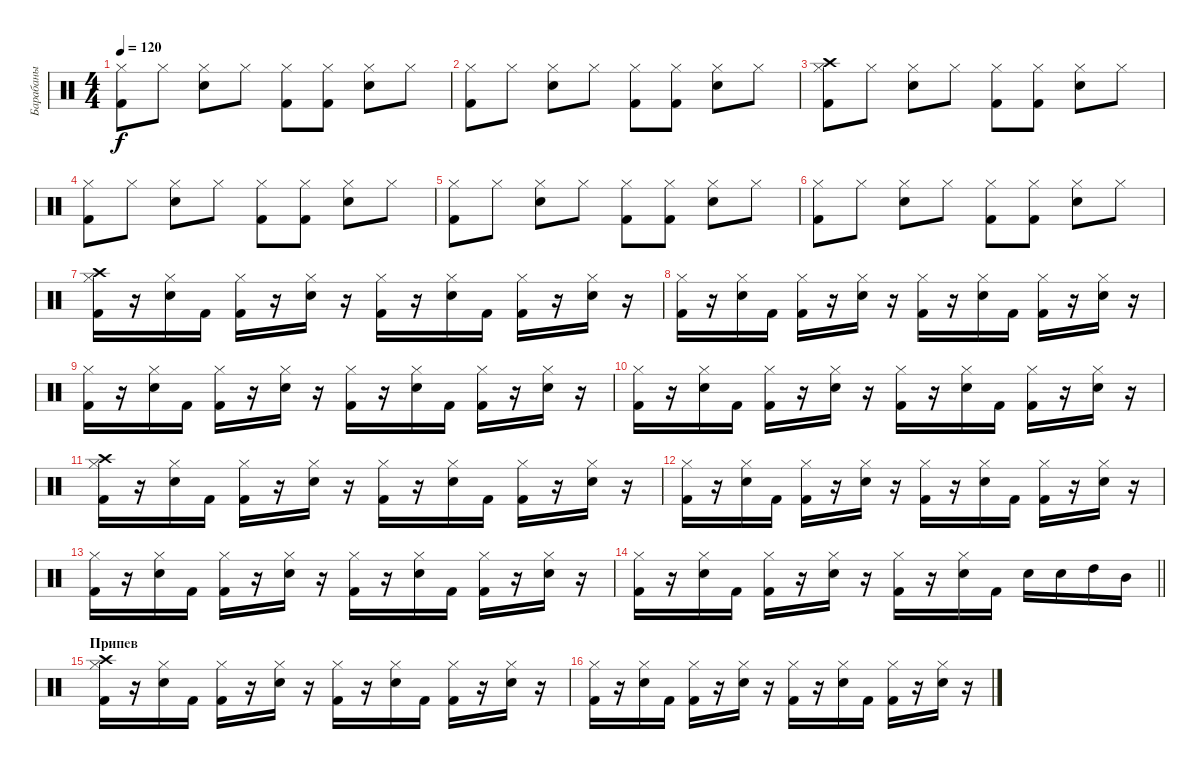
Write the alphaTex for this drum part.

\track ("Барабаны" "Барабаны") {instrument percussion}
\staff {score}
\articulation defaults
\ts (4 4)
\tempo 120
\clef neutral
\ks c
("Hi-Hat (closed)" "Kick (hit) 2").8{dy f} "Hi-Hat (closed)".8 ("Hi-Hat (closed)" "Electric Snare (hit)").8 "Hi-Hat (closed)".8 ("Hi-Hat (closed)" "Kick (hit) 2").8 ("Hi-Hat (closed)" "Kick (hit) 2").8 ("Hi-Hat (closed)" "Electric Snare (hit)").8 "Hi-Hat (closed)".8 |
("Hi-Hat (closed)" "Kick (hit) 2").8 "Hi-Hat (closed)".8 ("Hi-Hat (closed)" "Electric Snare (hit)").8 "Hi-Hat (closed)".8 ("Hi-Hat (closed)" "Kick (hit) 2").8 ("Hi-Hat (closed)" "Kick (hit) 2").8 ("Hi-Hat (closed)" "Electric Snare (hit)").8 "Hi-Hat (closed)".8 |
("Hi-Hat (closed)" "Kick (hit) 2" "Crash high (hit)").8 "Hi-Hat (closed)".8 ("Hi-Hat (closed)" "Electric Snare (hit)").8 "Hi-Hat (closed)".8 ("Hi-Hat (closed)" "Kick (hit) 2").8 ("Hi-Hat (closed)" "Kick (hit) 2").8 ("Hi-Hat (closed)" "Electric Snare (hit)").8 "Hi-Hat (closed)".8 |
("Hi-Hat (closed)" "Kick (hit) 2").8 "Hi-Hat (closed)".8 ("Hi-Hat (closed)" "Electric Snare (hit)").8 "Hi-Hat (closed)".8 ("Hi-Hat (closed)" "Kick (hit) 2").8 ("Hi-Hat (closed)" "Kick (hit) 2").8 ("Hi-Hat (closed)" "Electric Snare (hit)").8 "Hi-Hat (closed)".8 |
("Hi-Hat (closed)" "Kick (hit) 2").8 "Hi-Hat (closed)".8 ("Hi-Hat (closed)" "Electric Snare (hit)").8 "Hi-Hat (closed)".8 ("Hi-Hat (closed)" "Kick (hit) 2").8 ("Hi-Hat (closed)" "Kick (hit) 2").8 ("Hi-Hat (closed)" "Electric Snare (hit)").8 "Hi-Hat (closed)".8 |
("Hi-Hat (closed)" "Kick (hit) 2").8 "Hi-Hat (closed)".8 ("Hi-Hat (closed)" "Electric Snare (hit)").8 "Hi-Hat (closed)".8 ("Hi-Hat (closed)" "Kick (hit) 2").8 ("Hi-Hat (closed)" "Kick (hit) 2").8 ("Hi-Hat (closed)" "Electric Snare (hit)").8 "Hi-Hat (closed)".8 |
("Hi-Hat (closed)" "Kick (hit) 2" "Crash high (hit)").16 r.16 ("Hi-Hat (closed)" "Electric Snare (hit)").16 "Kick (hit) 2".16 ("Hi-Hat (closed)" "Kick (hit) 2").16 r.16 ("Hi-Hat (closed)" "Electric Snare (hit)").16 r.16 ("Hi-Hat (closed)" "Kick (hit) 2").16 r.16 ("Hi-Hat (closed)" "Electric Snare (hit)").16 "Kick (hit) 2".16 ("Hi-Hat (closed)" "Kick (hit) 2").16 r.16 ("Hi-Hat (closed)" "Electric Snare (hit)").16 r.16 |
("Hi-Hat (closed)" "Kick (hit) 2").16 r.16 ("Hi-Hat (closed)" "Electric Snare (hit)").16 "Kick (hit) 2".16 ("Hi-Hat (closed)" "Kick (hit) 2").16 r.16 ("Hi-Hat (closed)" "Electric Snare (hit)").16 r.16 ("Hi-Hat (closed)" "Kick (hit) 2").16 r.16 ("Hi-Hat (closed)" "Electric Snare (hit)").16 "Kick (hit) 2".16 ("Hi-Hat (closed)" "Kick (hit) 2").16 r.16 ("Hi-Hat (closed)" "Electric Snare (hit)").16 r.16 |
("Hi-Hat (closed)" "Kick (hit) 2").16 r.16 ("Hi-Hat (closed)" "Electric Snare (hit)").16 "Kick (hit) 2".16 ("Hi-Hat (closed)" "Kick (hit) 2").16 r.16 ("Hi-Hat (closed)" "Electric Snare (hit)").16 r.16 ("Hi-Hat (closed)" "Kick (hit) 2").16 r.16 ("Hi-Hat (closed)" "Electric Snare (hit)").16 "Kick (hit) 2".16 ("Hi-Hat (closed)" "Kick (hit) 2").16 r.16 ("Hi-Hat (closed)" "Electric Snare (hit)").16 r.16 |
("Hi-Hat (closed)" "Kick (hit) 2").16 r.16 ("Hi-Hat (closed)" "Electric Snare (hit)").16 "Kick (hit) 2".16 ("Hi-Hat (closed)" "Kick (hit) 2").16 r.16 ("Hi-Hat (closed)" "Electric Snare (hit)").16 r.16 ("Hi-Hat (closed)" "Kick (hit) 2").16 r.16 ("Hi-Hat (closed)" "Electric Snare (hit)").16 "Kick (hit) 2".16 ("Hi-Hat (closed)" "Kick (hit) 2").16 r.16 ("Hi-Hat (closed)" "Electric Snare (hit)").16 r.16 |
("Hi-Hat (closed)" "Kick (hit) 2" "Crash high (hit)").16 r.16 ("Hi-Hat (closed)" "Electric Snare (hit)").16 "Kick (hit) 2".16 ("Hi-Hat (closed)" "Kick (hit) 2").16 r.16 ("Hi-Hat (closed)" "Electric Snare (hit)").16 r.16 ("Hi-Hat (closed)" "Kick (hit) 2").16 r.16 ("Hi-Hat (closed)" "Electric Snare (hit)").16 "Kick (hit) 2".16 ("Hi-Hat (closed)" "Kick (hit) 2").16 r.16 ("Hi-Hat (closed)" "Electric Snare (hit)").16 r.16 |
("Hi-Hat (closed)" "Kick (hit) 2").16 r.16 ("Hi-Hat (closed)" "Electric Snare (hit)").16 "Kick (hit) 2".16 ("Hi-Hat (closed)" "Kick (hit) 2").16 r.16 ("Hi-Hat (closed)" "Electric Snare (hit)").16 r.16 ("Hi-Hat (closed)" "Kick (hit) 2").16 r.16 ("Hi-Hat (closed)" "Electric Snare (hit)").16 "Kick (hit) 2".16 ("Hi-Hat (closed)" "Kick (hit) 2").16 r.16 ("Hi-Hat (closed)" "Electric Snare (hit)").16 r.16 |
("Hi-Hat (closed)" "Kick (hit) 2").16 r.16 ("Hi-Hat (closed)" "Electric Snare (hit)").16 "Kick (hit) 2".16 ("Hi-Hat (closed)" "Kick (hit) 2").16 r.16 ("Hi-Hat (closed)" "Electric Snare (hit)").16 r.16 ("Hi-Hat (closed)" "Kick (hit) 2").16 r.16 ("Hi-Hat (closed)" "Electric Snare (hit)").16 "Kick (hit) 2".16 ("Hi-Hat (closed)" "Kick (hit) 2").16 r.16 ("Hi-Hat (closed)" "Electric Snare (hit)").16 r.16 |
\barLineRight lightlight
("Hi-Hat (closed)" "Kick (hit) 2").16 r.16 ("Hi-Hat (closed)" "Electric Snare (hit)").16 "Kick (hit) 2".16 ("Hi-Hat (closed)" "Kick (hit) 2").16 r.16 ("Hi-Hat (closed)" "Electric Snare (hit)").16 r.16 ("Hi-Hat (closed)" "Kick (hit) 2").16 r.16 ("Hi-Hat (closed)" "Electric Snare (hit)").16 "Kick (hit) 2".16 "Electric Snare (hit)".16 "Electric Snare (hit)".16 "High Tom (hit)".16 "Mid Tom (hit)".16 |
\section ("" "Припев")
("Hi-Hat (closed)" "Kick (hit) 2" "Crash high (hit)").16 r.16 ("Hi-Hat (closed)" "Electric Snare (hit)").16 "Kick (hit) 2".16 ("Hi-Hat (closed)" "Kick (hit) 2").16 r.16 ("Hi-Hat (closed)" "Electric Snare (hit)").16 r.16 ("Hi-Hat (closed)" "Kick (hit) 2").16 r.16 ("Hi-Hat (closed)" "Electric Snare (hit)").16 "Kick (hit) 2".16 ("Hi-Hat (closed)" "Kick (hit) 2").16 r.16 ("Hi-Hat (closed)" "Electric Snare (hit)").16 r.16 |
("Hi-Hat (closed)" "Kick (hit) 2").16 r.16 ("Hi-Hat (closed)" "Electric Snare (hit)").16 "Kick (hit) 2".16 ("Hi-Hat (closed)" "Kick (hit) 2").16 r.16 ("Hi-Hat (closed)" "Electric Snare (hit)").16 r.16 ("Hi-Hat (closed)" "Kick (hit) 2").16 r.16 ("Hi-Hat (closed)" "Electric Snare (hit)").16 "Kick (hit) 2".16 ("Hi-Hat (closed)" "Kick (hit) 2").16 r.16 ("Hi-Hat (closed)" "Electric Snare (hit)").16 r.16
